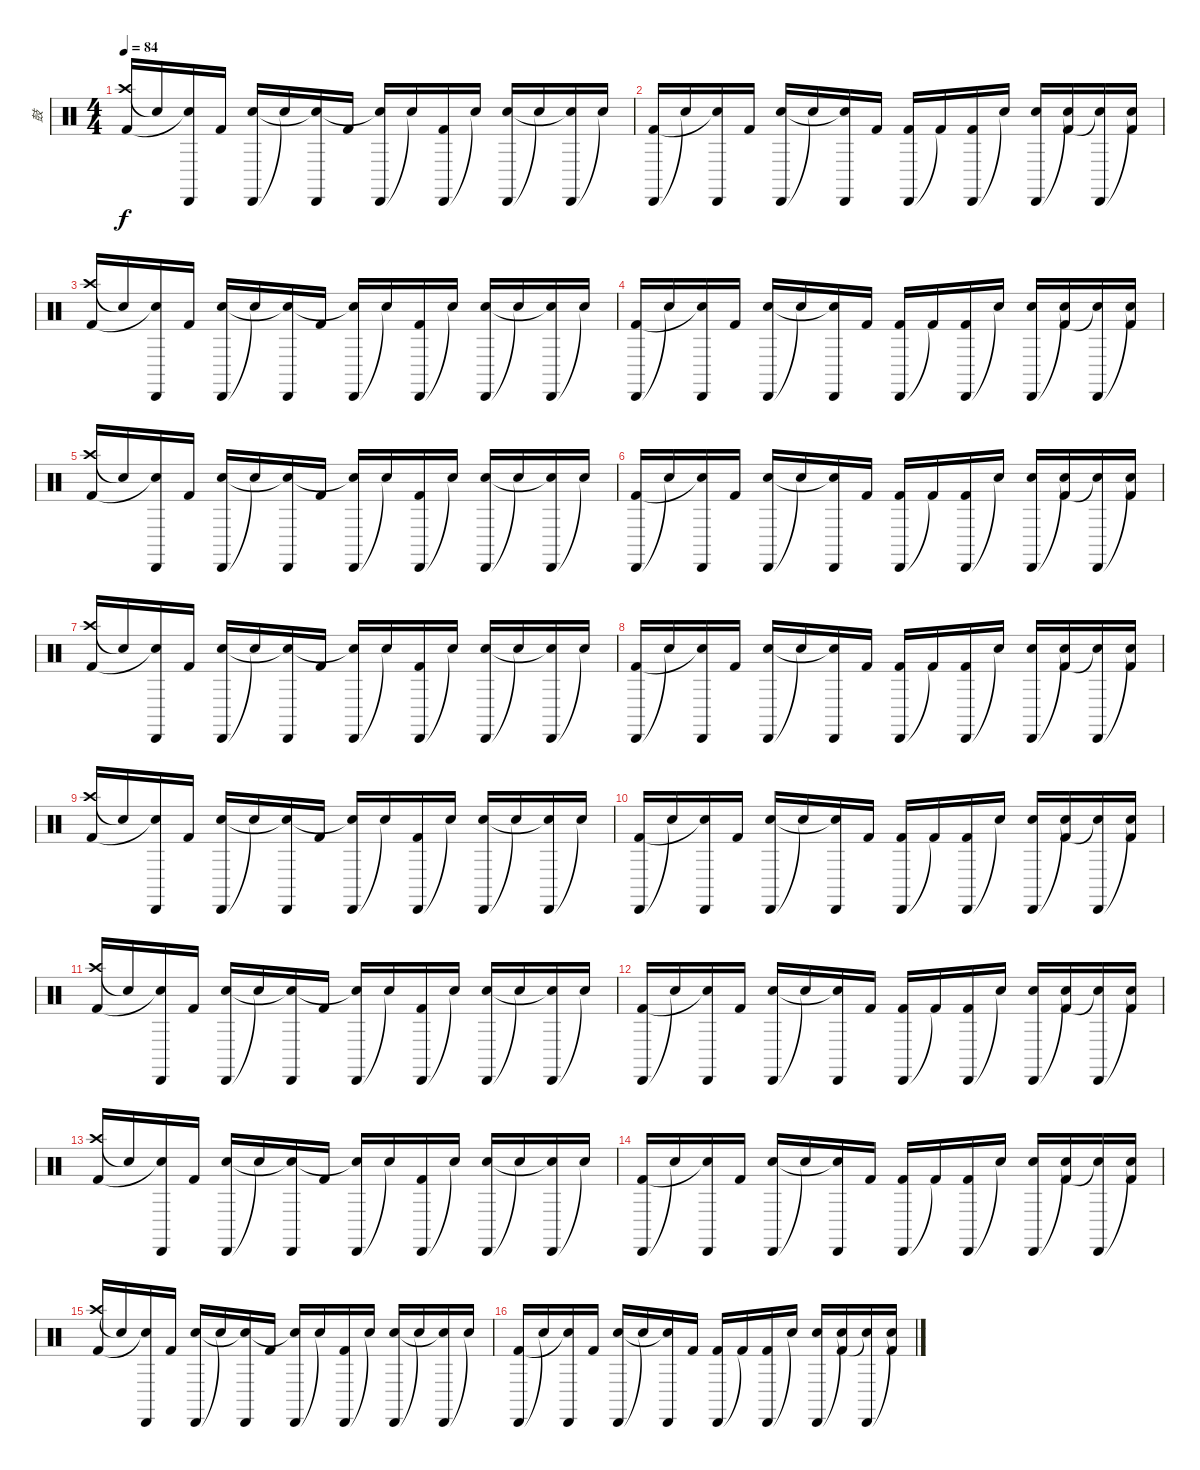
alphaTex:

\track ("鼓" "鼓") {instrument percussion}
\staff {score}
\articulation defaults
\ts (4 4)
\tempo 84
\clef neutral
\ks c
("Crash high (hit)" "Kick (hit) 2").16{dy f} "Snare (hit)"{t}.16 ("Cabasa (hit)" "Snare (hit)"{t}).16 "Kick (hit) 2".16 ("Cabasa (hit)" "Electric Snare (hit)").16 "Snare (hit)"{t}.16 ("Cabasa (hit)" "Snare (hit)"{t}).16 "Kick (hit) 2".16 ("Cabasa (hit)" "Snare (hit)"{t}).16 "Snare (hit)"{t}.16 ("Cabasa (hit)" "Kick (hit) 2").16 "Snare (hit)"{t}.16 ("Cabasa (hit)" "Electric Snare (hit)").16 "Snare (hit)"{t}.16 ("Cabasa (hit)" "Snare (hit)"{t}).16 "Snare (hit)"{t}.16 |
("Cabasa (hit)" "Kick (hit) 2").16 "Snare (hit)"{t}.16 ("Cabasa (hit)" "Snare (hit)"{t}).16 "Kick (hit) 2".16 ("Cabasa (hit)" "Electric Snare (hit)").16 "Snare (hit)"{t}.16 ("Cabasa (hit)" "Snare (hit)"{t}).16 "Kick (hit) 2".16 ("Cabasa (hit)" "Kick (hit) 2").16 "Kick (hit) 2"{t}.16 ("Cabasa (hit)" "Kick (hit) 2").16 "Snare (hit)"{t}.16 ("Cabasa (hit)" "Electric Snare (hit)").16 ("Snare (hit)"{t} "Kick (hit) 2").16 ("Cabasa (hit)" "Snare (hit)"{t}).16 ("Snare (hit)"{t} "Kick (hit) 2").16 |
("Crash high (hit)" "Kick (hit) 2").16 "Snare (hit)"{t}.16 ("Cabasa (hit)" "Snare (hit)"{t}).16 "Kick (hit) 2".16 ("Cabasa (hit)" "Electric Snare (hit)").16 "Snare (hit)"{t}.16 ("Cabasa (hit)" "Snare (hit)"{t}).16 "Kick (hit) 2".16 ("Cabasa (hit)" "Snare (hit)"{t}).16 "Snare (hit)"{t}.16 ("Cabasa (hit)" "Kick (hit) 2").16 "Snare (hit)"{t}.16 ("Cabasa (hit)" "Electric Snare (hit)").16 "Snare (hit)"{t}.16 ("Cabasa (hit)" "Snare (hit)"{t}).16 "Snare (hit)"{t}.16 |
("Cabasa (hit)" "Kick (hit) 2").16 "Snare (hit)"{t}.16 ("Cabasa (hit)" "Snare (hit)"{t}).16 "Kick (hit) 2".16 ("Cabasa (hit)" "Electric Snare (hit)").16 "Snare (hit)"{t}.16 ("Cabasa (hit)" "Snare (hit)"{t}).16 "Kick (hit) 2".16 ("Cabasa (hit)" "Kick (hit) 2").16 "Kick (hit) 2"{t}.16 ("Cabasa (hit)" "Kick (hit) 2").16 "Snare (hit)"{t}.16 ("Cabasa (hit)" "Electric Snare (hit)").16 ("Snare (hit)"{t} "Kick (hit) 2").16 ("Cabasa (hit)" "Snare (hit)"{t}).16 ("Snare (hit)"{t} "Kick (hit) 2").16 |
("Crash high (hit)" "Kick (hit) 2").16 "Snare (hit)"{t}.16 ("Cabasa (hit)" "Snare (hit)"{t}).16 "Kick (hit) 2".16 ("Cabasa (hit)" "Electric Snare (hit)").16 "Snare (hit)"{t}.16 ("Cabasa (hit)" "Snare (hit)"{t}).16 "Kick (hit) 2".16 ("Cabasa (hit)" "Snare (hit)"{t}).16 "Snare (hit)"{t}.16 ("Cabasa (hit)" "Kick (hit) 2").16 "Snare (hit)"{t}.16 ("Cabasa (hit)" "Electric Snare (hit)").16 "Snare (hit)"{t}.16 ("Cabasa (hit)" "Snare (hit)"{t}).16 "Snare (hit)"{t}.16 |
("Cabasa (hit)" "Kick (hit) 2").16 "Snare (hit)"{t}.16 ("Cabasa (hit)" "Snare (hit)"{t}).16 "Kick (hit) 2".16 ("Cabasa (hit)" "Electric Snare (hit)").16 "Snare (hit)"{t}.16 ("Cabasa (hit)" "Snare (hit)"{t}).16 "Kick (hit) 2".16 ("Cabasa (hit)" "Kick (hit) 2").16 "Kick (hit) 2"{t}.16 ("Cabasa (hit)" "Kick (hit) 2").16 "Snare (hit)"{t}.16 ("Cabasa (hit)" "Electric Snare (hit)").16 ("Snare (hit)"{t} "Kick (hit) 2").16 ("Cabasa (hit)" "Snare (hit)"{t}).16 ("Snare (hit)"{t} "Kick (hit) 2").16 |
("Crash high (hit)" "Kick (hit) 2").16 "Snare (hit)"{t}.16 ("Cabasa (hit)" "Snare (hit)"{t}).16 "Kick (hit) 2".16 ("Cabasa (hit)" "Electric Snare (hit)").16 "Snare (hit)"{t}.16 ("Cabasa (hit)" "Snare (hit)"{t}).16 "Kick (hit) 2".16 ("Cabasa (hit)" "Snare (hit)"{t}).16 "Snare (hit)"{t}.16 ("Cabasa (hit)" "Kick (hit) 2").16 "Snare (hit)"{t}.16 ("Cabasa (hit)" "Electric Snare (hit)").16 "Snare (hit)"{t}.16 ("Cabasa (hit)" "Snare (hit)"{t}).16 "Snare (hit)"{t}.16 |
("Cabasa (hit)" "Kick (hit) 2").16 "Snare (hit)"{t}.16 ("Cabasa (hit)" "Snare (hit)"{t}).16 "Kick (hit) 2".16 ("Cabasa (hit)" "Electric Snare (hit)").16 "Snare (hit)"{t}.16 ("Cabasa (hit)" "Snare (hit)"{t}).16 "Kick (hit) 2".16 ("Cabasa (hit)" "Kick (hit) 2").16 "Kick (hit) 2"{t}.16 ("Cabasa (hit)" "Kick (hit) 2").16 "Snare (hit)"{t}.16 ("Cabasa (hit)" "Electric Snare (hit)").16 ("Snare (hit)"{t} "Kick (hit) 2").16 ("Cabasa (hit)" "Snare (hit)"{t}).16 ("Snare (hit)"{t} "Kick (hit) 2").16 |
("Crash high (hit)" "Kick (hit) 2").16 "Snare (hit)"{t}.16 ("Cabasa (hit)" "Snare (hit)"{t}).16 "Kick (hit) 2".16 ("Cabasa (hit)" "Electric Snare (hit)").16 "Snare (hit)"{t}.16 ("Cabasa (hit)" "Snare (hit)"{t}).16 "Kick (hit) 2".16 ("Cabasa (hit)" "Snare (hit)"{t}).16 "Snare (hit)"{t}.16 ("Cabasa (hit)" "Kick (hit) 2").16 "Snare (hit)"{t}.16 ("Cabasa (hit)" "Electric Snare (hit)").16 "Snare (hit)"{t}.16 ("Cabasa (hit)" "Snare (hit)"{t}).16 "Snare (hit)"{t}.16 |
("Cabasa (hit)" "Kick (hit) 2").16 "Snare (hit)"{t}.16 ("Cabasa (hit)" "Snare (hit)"{t}).16 "Kick (hit) 2".16 ("Cabasa (hit)" "Electric Snare (hit)").16 "Snare (hit)"{t}.16 ("Cabasa (hit)" "Snare (hit)"{t}).16 "Kick (hit) 2".16 ("Cabasa (hit)" "Kick (hit) 2").16 "Kick (hit) 2"{t}.16 ("Cabasa (hit)" "Kick (hit) 2").16 "Snare (hit)"{t}.16 ("Cabasa (hit)" "Electric Snare (hit)").16 ("Snare (hit)"{t} "Kick (hit) 2").16 ("Cabasa (hit)" "Snare (hit)"{t}).16 ("Snare (hit)"{t} "Kick (hit) 2").16 |
("Crash high (hit)" "Kick (hit) 2").16 "Snare (hit)"{t}.16 ("Cabasa (hit)" "Snare (hit)"{t}).16 "Kick (hit) 2".16 ("Cabasa (hit)" "Electric Snare (hit)").16 "Snare (hit)"{t}.16 ("Cabasa (hit)" "Snare (hit)"{t}).16 "Kick (hit) 2".16 ("Cabasa (hit)" "Snare (hit)"{t}).16 "Snare (hit)"{t}.16 ("Cabasa (hit)" "Kick (hit) 2").16 "Snare (hit)"{t}.16 ("Cabasa (hit)" "Electric Snare (hit)").16 "Snare (hit)"{t}.16 ("Cabasa (hit)" "Snare (hit)"{t}).16 "Snare (hit)"{t}.16 |
("Cabasa (hit)" "Kick (hit) 2").16 "Snare (hit)"{t}.16 ("Cabasa (hit)" "Snare (hit)"{t}).16 "Kick (hit) 2".16 ("Cabasa (hit)" "Electric Snare (hit)").16 "Snare (hit)"{t}.16 ("Cabasa (hit)" "Snare (hit)"{t}).16 "Kick (hit) 2".16 ("Cabasa (hit)" "Kick (hit) 2").16 "Kick (hit) 2"{t}.16 ("Cabasa (hit)" "Kick (hit) 2").16 "Snare (hit)"{t}.16 ("Cabasa (hit)" "Electric Snare (hit)").16 ("Snare (hit)"{t} "Kick (hit) 2").16 ("Cabasa (hit)" "Snare (hit)"{t}).16 ("Snare (hit)"{t} "Kick (hit) 2").16 |
("Crash high (hit)" "Kick (hit) 2").16 "Snare (hit)"{t}.16 ("Cabasa (hit)" "Snare (hit)"{t}).16 "Kick (hit) 2".16 ("Cabasa (hit)" "Electric Snare (hit)").16 "Snare (hit)"{t}.16 ("Cabasa (hit)" "Snare (hit)"{t}).16 "Kick (hit) 2".16 ("Cabasa (hit)" "Snare (hit)"{t}).16 "Snare (hit)"{t}.16 ("Cabasa (hit)" "Kick (hit) 2").16 "Snare (hit)"{t}.16 ("Cabasa (hit)" "Electric Snare (hit)").16 "Snare (hit)"{t}.16 ("Cabasa (hit)" "Snare (hit)"{t}).16 "Snare (hit)"{t}.16 |
("Cabasa (hit)" "Kick (hit) 2").16 "Snare (hit)"{t}.16 ("Cabasa (hit)" "Snare (hit)"{t}).16 "Kick (hit) 2".16 ("Cabasa (hit)" "Electric Snare (hit)").16 "Snare (hit)"{t}.16 ("Cabasa (hit)" "Snare (hit)"{t}).16 "Kick (hit) 2".16 ("Cabasa (hit)" "Kick (hit) 2").16 "Kick (hit) 2"{t}.16 ("Cabasa (hit)" "Kick (hit) 2").16 "Snare (hit)"{t}.16 ("Cabasa (hit)" "Electric Snare (hit)").16 ("Snare (hit)"{t} "Kick (hit) 2").16 ("Cabasa (hit)" "Snare (hit)"{t}).16 ("Snare (hit)"{t} "Kick (hit) 2").16 |
("Crash high (hit)" "Kick (hit) 2").16 "Snare (hit)"{t}.16 ("Cabasa (hit)" "Snare (hit)"{t}).16 "Kick (hit) 2".16 ("Cabasa (hit)" "Electric Snare (hit)").16 "Snare (hit)"{t}.16 ("Cabasa (hit)" "Snare (hit)"{t}).16 "Kick (hit) 2".16 ("Cabasa (hit)" "Snare (hit)"{t}).16 "Snare (hit)"{t}.16 ("Cabasa (hit)" "Kick (hit) 2").16 "Snare (hit)"{t}.16 ("Cabasa (hit)" "Electric Snare (hit)").16 "Snare (hit)"{t}.16 ("Cabasa (hit)" "Snare (hit)"{t}).16 "Snare (hit)"{t}.16 |
("Cabasa (hit)" "Kick (hit) 2").16 "Snare (hit)"{t}.16 ("Cabasa (hit)" "Snare (hit)"{t}).16 "Kick (hit) 2".16 ("Cabasa (hit)" "Electric Snare (hit)").16 "Snare (hit)"{t}.16 ("Cabasa (hit)" "Snare (hit)"{t}).16 "Kick (hit) 2".16 ("Cabasa (hit)" "Kick (hit) 2").16 "Kick (hit) 2"{t}.16 ("Cabasa (hit)" "Kick (hit) 2").16 "Snare (hit)"{t}.16 ("Cabasa (hit)" "Electric Snare (hit)").16 ("Snare (hit)"{t} "Kick (hit) 2").16 ("Cabasa (hit)" "Snare (hit)"{t}).16 ("Snare (hit)"{t} "Kick (hit) 2").16
